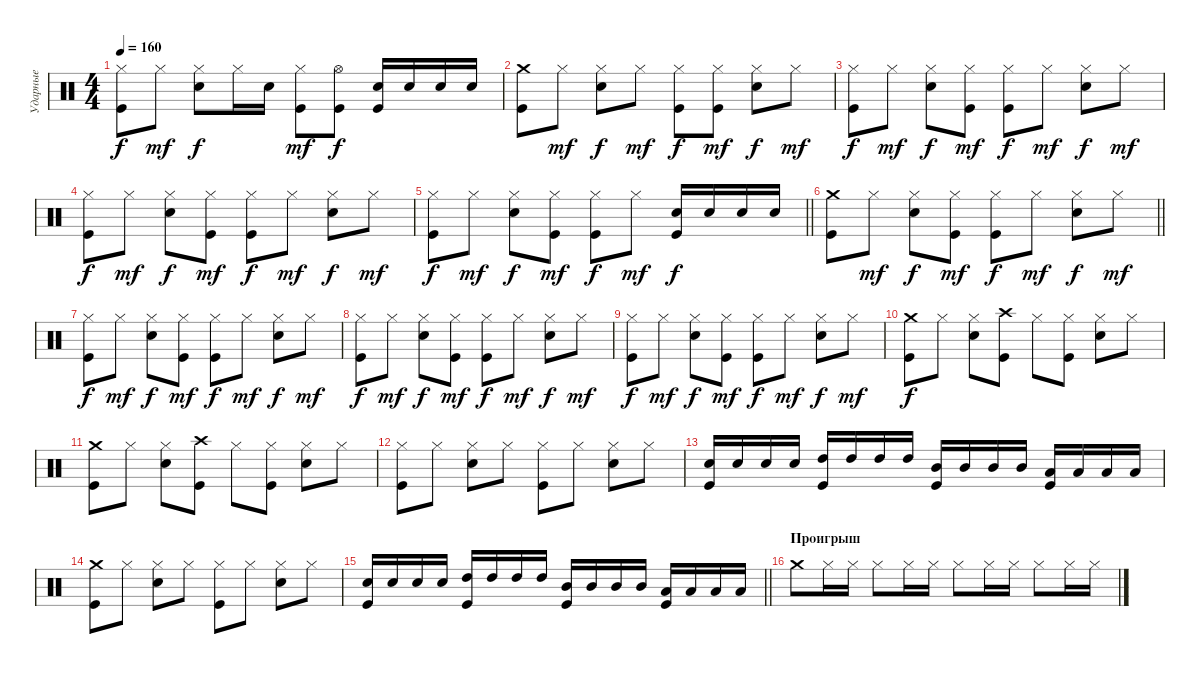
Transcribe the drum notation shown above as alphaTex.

\track ("Ударные" "Ударные") {instrument percussion}
\staff {score}
\articulation defaults
\ts (4 4)
\tempo 160
\clef neutral
\ks c
("Hi-Hat (closed)" "Kick (hit)").8{dy f} "Hi-Hat (closed)".8{dy mf} ("Hi-Hat (closed)" "Electric Snare (hit)").8{dy f} "Hi-Hat (closed)".16 "Electric Snare (hit)".16 ("Hi-Hat (closed)" "Kick (hit)").8{dy mf} ("Hi-Hat (open)" "Kick (hit)").8{dy f} ("Electric Snare (hit)" "Kick (hit)").16 "Electric Snare (hit)".16 "Electric Snare (hit)".16 "Electric Snare (hit)".16 |
("Crash medium (hit)" "Kick (hit)").8 "Hi-Hat (closed)".8{dy mf} ("Hi-Hat (closed)" "Electric Snare (hit)").8{dy f} "Hi-Hat (closed)".8{dy mf} ("Hi-Hat (closed)" "Kick (hit)").8{dy f} ("Hi-Hat (closed)" "Kick (hit)").8{dy mf} ("Hi-Hat (closed)" "Electric Snare (hit)").8{dy f} "Hi-Hat (closed)".8{dy mf} |
("Hi-Hat (closed)" "Kick (hit)").8{dy f} "Hi-Hat (closed)".8{dy mf} ("Hi-Hat (closed)" "Electric Snare (hit)").8{dy f} ("Hi-Hat (closed)" "Kick (hit)").8{dy mf} ("Hi-Hat (closed)" "Kick (hit)").8{dy f} "Hi-Hat (closed)".8{dy mf} ("Hi-Hat (closed)" "Electric Snare (hit)").8{dy f} "Hi-Hat (closed)".8{dy mf} |
("Hi-Hat (closed)" "Kick (hit)").8{dy f} "Hi-Hat (closed)".8{dy mf} ("Hi-Hat (closed)" "Electric Snare (hit)").8{dy f} ("Hi-Hat (closed)" "Kick (hit)").8{dy mf} ("Hi-Hat (closed)" "Kick (hit)").8{dy f} "Hi-Hat (closed)".8{dy mf} ("Hi-Hat (closed)" "Electric Snare (hit)").8{dy f} "Hi-Hat (closed)".8{dy mf} |
\barLineRight lightlight
("Hi-Hat (closed)" "Kick (hit)").8{dy f} "Hi-Hat (closed)".8{dy mf} ("Hi-Hat (closed)" "Electric Snare (hit)").8{dy f} ("Hi-Hat (closed)" "Kick (hit)").8{dy mf} ("Hi-Hat (closed)" "Kick (hit)").8{dy f} "Hi-Hat (closed)".8{dy mf} ("Electric Snare (hit)" "Kick (hit)").16{dy f} "Electric Snare (hit)".16 "Electric Snare (hit)".16 "Electric Snare (hit)".16 |
\section ("" " ")
\barLineRight lightlight
("Crash medium (hit)" "Kick (hit)").8 "Hi-Hat (closed)".8{dy mf} ("Hi-Hat (closed)" "Electric Snare (hit)").8{dy f} ("Hi-Hat (closed)" "Kick (hit)").8{dy mf} ("Hi-Hat (closed)" "Kick (hit)").8{dy f} "Hi-Hat (closed)".8{dy mf} ("Hi-Hat (closed)" "Electric Snare (hit)").8{dy f} "Hi-Hat (closed)".8{dy mf} |
("Hi-Hat (closed)" "Kick (hit)").8{dy f} "Hi-Hat (closed)".8{dy mf} ("Hi-Hat (closed)" "Electric Snare (hit)").8{dy f} ("Hi-Hat (closed)" "Kick (hit)").8{dy mf} ("Hi-Hat (closed)" "Kick (hit)").8{dy f} "Hi-Hat (closed)".8{dy mf} ("Hi-Hat (closed)" "Electric Snare (hit)").8{dy f} "Hi-Hat (closed)".8{dy mf} |
("Hi-Hat (closed)" "Kick (hit)").8{dy f} "Hi-Hat (closed)".8{dy mf} ("Hi-Hat (closed)" "Electric Snare (hit)").8{dy f} ("Hi-Hat (closed)" "Kick (hit)").8{dy mf} ("Hi-Hat (closed)" "Kick (hit)").8{dy f} "Hi-Hat (closed)".8{dy mf} ("Hi-Hat (closed)" "Electric Snare (hit)").8{dy f} "Hi-Hat (closed)".8{dy mf} |
("Hi-Hat (closed)" "Kick (hit)").8{dy f} "Hi-Hat (closed)".8{dy mf} ("Hi-Hat (closed)" "Electric Snare (hit)").8{dy f} ("Hi-Hat (closed)" "Kick (hit)").8{dy mf} ("Hi-Hat (closed)" "Kick (hit)").8{dy f} "Hi-Hat (closed)".8{dy mf} ("Hi-Hat (closed)" "Electric Snare (hit)").8{dy f} "Hi-Hat (closed)".8{dy mf} |
("Crash medium (hit)" "Kick (hit)").8{dy f} "Hi-Hat (closed)".8 ("Hi-Hat (closed)" "Electric Snare (hit)").8 ("Crash high (hit)" "Kick (hit)").8 "Hi-Hat (closed)".8 ("Hi-Hat (closed)" "Kick (hit)").8 ("Hi-Hat (closed)" "Electric Snare (hit)").8 "Hi-Hat (closed)".8 |
("Crash medium (hit)" "Kick (hit)").8 "Hi-Hat (closed)".8 ("Hi-Hat (closed)" "Electric Snare (hit)").8 ("Crash high (hit)" "Kick (hit)").8 "Hi-Hat (closed)".8 ("Hi-Hat (closed)" "Kick (hit)").8 ("Hi-Hat (closed)" "Electric Snare (hit)").8 "Hi-Hat (closed)".8 |
("Hi-Hat (closed)" "Kick (hit)").8 "Hi-Hat (closed)".8 ("Hi-Hat (closed)" "Electric Snare (hit)").8 "Hi-Hat (closed)".8 ("Hi-Hat (closed)" "Kick (hit)").8 "Hi-Hat (closed)".8 ("Hi-Hat (closed)" "Electric Snare (hit)").8 "Hi-Hat (closed)".8 |
("Electric Snare (hit)" "Kick (hit)").16 "Electric Snare (hit)".16 "Electric Snare (hit)".16 "Electric Snare (hit)".16 ("High Tom (hit)" "Kick (hit)").16 "High Tom (hit)".16 "High Tom (hit)".16 "High Tom (hit)".16 ("Mid Tom (hit)" "Kick (hit)").16 "Mid Tom (hit)".16 "Mid Tom (hit)".16 "Mid Tom (hit)".16 ("Low Tom (hit)" "Kick (hit)").16 "Low Tom (hit)".16 "Low Tom (hit)".16 "Low Tom (hit)".16 |
("Crash medium (hit)" "Kick (hit)").8 "Hi-Hat (closed)".8 ("Hi-Hat (closed)" "Electric Snare (hit)").8 "Hi-Hat (closed)".8 ("Hi-Hat (closed)" "Kick (hit)").8 "Hi-Hat (closed)".8 ("Hi-Hat (closed)" "Electric Snare (hit)").8 "Hi-Hat (closed)".8 |
\barLineRight lightlight
("Electric Snare (hit)" "Kick (hit)").16 "Electric Snare (hit)".16 "Electric Snare (hit)".16 "Electric Snare (hit)".16 ("High Tom (hit)" "Kick (hit)").16 "High Tom (hit)".16 "High Tom (hit)".16 "High Tom (hit)".16 ("Mid Tom (hit)" "Kick (hit)").16 "Mid Tom (hit)".16 "Mid Tom (hit)".16 "Mid Tom (hit)".16 ("Low Tom (hit)" "Kick (hit)").16 "Low Tom (hit)".16 "Low Tom (hit)".16 "Low Tom (hit)".16 |
\section ("" "Проигрыш")
"Crash medium (hit)".8 "Hi-Hat (closed)".16 "Hi-Hat (closed)".16 "Hi-Hat (closed)".8 "Hi-Hat (closed)".16 "Hi-Hat (closed)".16 "Hi-Hat (closed)".8 "Hi-Hat (closed)".16 "Hi-Hat (closed)".16 "Hi-Hat (closed)".8 "Hi-Hat (closed)".16 "Hi-Hat (closed)".16
